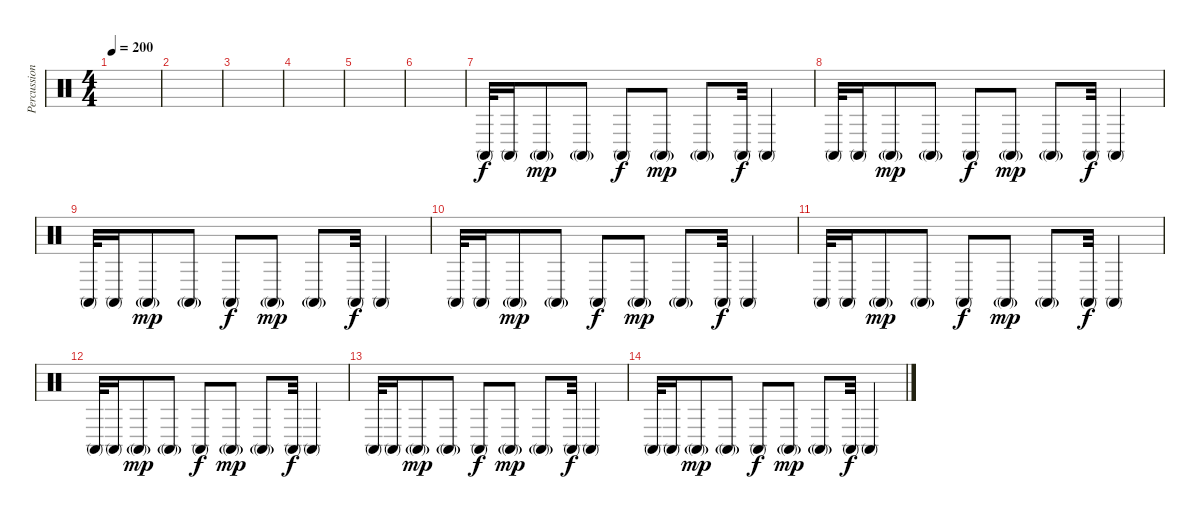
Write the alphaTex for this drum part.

\track ("Percussion 2" "Percussion") {instrument percussion}
\staff {score}
\articulation defaults
\ts (4 4)
\tempo 200
\clef neutral
\ks c
|
|
|
|
|
|
"Conga high (mute)".32{dy f} "Conga high (mute)".16 "Conga high (mute)"{g}.8{dy mp} "Conga high (mute)"{g}.8 "Conga high (mute)".8{dy f} "Conga high (mute)"{g}.8{dy mp} "Conga high (mute)"{g}.8 "Conga high (mute)".32{dy f} "Conga high (mute)".4 |
"Conga high (mute)".32 "Conga high (mute)".16 "Conga high (mute)"{g}.8{dy mp} "Conga high (mute)"{g}.8 "Conga high (mute)".8{dy f} "Conga high (mute)"{g}.8{dy mp} "Conga high (mute)"{g}.8 "Conga high (mute)".32{dy f} "Conga high (mute)".4 |
"Conga high (mute)".32 "Conga high (mute)".16 "Conga high (mute)"{g}.8{dy mp} "Conga high (mute)"{g}.8 "Conga high (mute)".8{dy f} "Conga high (mute)"{g}.8{dy mp} "Conga high (mute)"{g}.8 "Conga high (mute)".32{dy f} "Conga high (mute)".4 |
"Conga high (mute)".32 "Conga high (mute)".16 "Conga high (mute)"{g}.8{dy mp} "Conga high (mute)"{g}.8 "Conga high (mute)".8{dy f} "Conga high (mute)"{g}.8{dy mp} "Conga high (mute)"{g}.8 "Conga high (mute)".32{dy f} "Conga high (mute)".4 |
"Conga high (mute)".32 "Conga high (mute)".16 "Conga high (mute)"{g}.8{dy mp} "Conga high (mute)"{g}.8 "Conga high (mute)".8{dy f} "Conga high (mute)"{g}.8{dy mp} "Conga high (mute)"{g}.8 "Conga high (mute)".32{dy f} "Conga high (mute)".4 |
"Conga high (mute)".32 "Conga high (mute)".16 "Conga high (mute)"{g}.8{dy mp} "Conga high (mute)"{g}.8 "Conga high (mute)".8{dy f} "Conga high (mute)"{g}.8{dy mp} "Conga high (mute)"{g}.8 "Conga high (mute)".32{dy f} "Conga high (mute)".4 |
"Conga high (mute)".32 "Conga high (mute)".16 "Conga high (mute)"{g}.8{dy mp} "Conga high (mute)"{g}.8 "Conga high (mute)".8{dy f} "Conga high (mute)"{g}.8{dy mp} "Conga high (mute)"{g}.8 "Conga high (mute)".32{dy f} "Conga high (mute)".4 |
"Conga high (mute)".32 "Conga high (mute)".16 "Conga high (mute)"{g}.8{dy mp} "Conga high (mute)"{g}.8 "Conga high (mute)".8{dy f} "Conga high (mute)"{g}.8{dy mp} "Conga high (mute)"{g}.8 "Conga high (mute)".32{dy f} "Conga high (mute)".4
